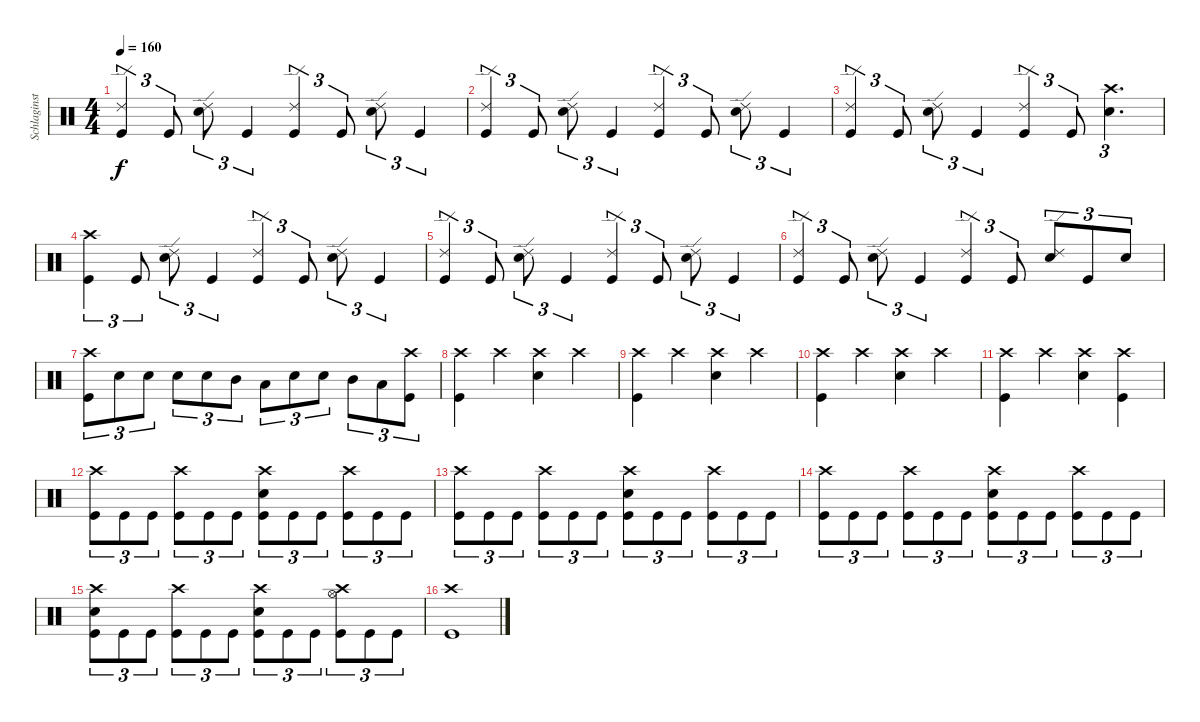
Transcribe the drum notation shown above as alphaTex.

\track ("Schlaginstrumente - Auswahl" "Schlaginst") {instrument percussion}
\staff {score}
\articulation defaults
\ts (4 4)
\tempo 160
\clef neutral
\ks c
("Ride (edge) 2" "Kick (hit)").4{tu (3 2) dy f} "Kick (hit)".8{tu (3 2)} ("Ride (edge) 2" "Electric Snare (hit)").8{tu (3 2)} "Kick (hit)".4{tu (3 2)} ("Ride (edge) 2" "Kick (hit)").4{tu (3 2)} "Kick (hit)".8{tu (3 2)} ("Ride (edge) 2" "Electric Snare (hit)").8{tu (3 2)} "Kick (hit)".4{tu (3 2)} |
("Ride (edge) 2" "Kick (hit)").4{tu (3 2)} "Kick (hit)".8{tu (3 2)} ("Ride (edge) 2" "Electric Snare (hit)").8{tu (3 2)} "Kick (hit)".4{tu (3 2)} ("Ride (edge) 2" "Kick (hit)").4{tu (3 2)} "Kick (hit)".8{tu (3 2)} ("Ride (edge) 2" "Electric Snare (hit)").8{tu (3 2)} "Kick (hit)".4{tu (3 2)} |
("Ride (edge) 2" "Kick (hit)").4{tu (3 2)} "Kick (hit)".8{tu (3 2)} ("Ride (edge) 2" "Electric Snare (hit)").8{tu (3 2)} "Kick (hit)".4{tu (3 2)} ("Ride (edge) 2" "Kick (hit)").4{tu (3 2)} "Kick (hit)".8{tu (3 2)} ("Crash high (hit)" "Electric Snare (hit)").4{d tu (3 2)} |
("Crash high (hit)" "Kick (hit)").4{tu (3 2)} "Kick (hit)".8{tu (3 2)} ("Ride (edge) 2" "Electric Snare (hit)").8{tu (3 2)} "Kick (hit)".4{tu (3 2)} ("Ride (edge) 2" "Kick (hit)").4{tu (3 2)} "Kick (hit)".8{tu (3 2)} ("Ride (edge) 2" "Electric Snare (hit)").8{tu (3 2)} "Kick (hit)".4{tu (3 2)} |
("Ride (edge) 2" "Kick (hit)").4{tu (3 2)} "Kick (hit)".8{tu (3 2)} ("Ride (edge) 2" "Electric Snare (hit)").8{tu (3 2)} "Kick (hit)".4{tu (3 2)} ("Ride (edge) 2" "Kick (hit)").4{tu (3 2)} "Kick (hit)".8{tu (3 2)} ("Ride (edge) 2" "Electric Snare (hit)").8{tu (3 2)} "Kick (hit)".4{tu (3 2)} |
("Ride (edge) 2" "Kick (hit)").4{tu (3 2)} "Kick (hit)".8{tu (3 2)} ("Ride (edge) 2" "Electric Snare (hit)").8{tu (3 2)} "Kick (hit)".4{tu (3 2)} ("Ride (edge) 2" "Kick (hit)").4{tu (3 2)} "Kick (hit)".8{tu (3 2)} ("Ride (edge) 2" "Electric Snare (hit)").8{tu (3 2)} "Kick (hit)".8{tu (3 2)} "Electric Snare (hit)".8{tu (3 2)} |
("Crash high (hit)" "Kick (hit)").8{tu (3 2)} "Electric Snare (hit)".8{tu (3 2)} "Electric Snare (hit)".8{tu (3 2)} "Electric Snare (hit)".8{tu (3 2)} "Electric Snare (hit)".8{tu (3 2)} "Mid Tom (hit)".8{tu (3 2)} "Low Tom (hit)".8{tu (3 2)} "Electric Snare (hit)".8{tu (3 2)} "Electric Snare (hit)".8{tu (3 2)} "Mid Tom (hit)".8{tu (3 2)} "Low Tom (hit)".8{tu (3 2)} ("Crash high (hit)" "Kick (hit)").8{tu (3 2)} |
("Crash high (hit)" "Kick (hit)").4 "Crash high (hit)".4 ("Crash high (hit)" "Electric Snare (hit)").4 "Crash high (hit)".4 |
("Crash high (hit)" "Kick (hit)").4 "Crash high (hit)".4 ("Crash high (hit)" "Electric Snare (hit)").4 "Crash high (hit)".4 |
("Crash high (hit)" "Kick (hit)").4 "Crash high (hit)".4 ("Crash high (hit)" "Electric Snare (hit)").4 "Crash high (hit)".4 |
("Crash high (hit)" "Kick (hit)").4 "Crash high (hit)".4 ("Crash high (hit)" "Electric Snare (hit)").4 ("Crash high (hit)" "Kick (hit)").4 |
("Crash high (hit)" "Kick (hit)").8{tu (3 2)} "Kick (hit)".8{tu (3 2)} "Kick (hit)".8{tu (3 2)} ("Crash high (hit)" "Kick (hit)").8{tu (3 2)} "Kick (hit)".8{tu (3 2)} "Kick (hit)".8{tu (3 2)} ("Electric Snare (hit)" "Crash high (hit)" "Kick (hit)").8{tu (3 2)} "Kick (hit)".8{tu (3 2)} "Kick (hit)".8{tu (3 2)} ("Crash high (hit)" "Kick (hit)").8{tu (3 2)} "Kick (hit)".8{tu (3 2)} "Kick (hit)".8{tu (3 2)} |
("Crash high (hit)" "Kick (hit)").8{tu (3 2)} "Kick (hit)".8{tu (3 2)} "Kick (hit)".8{tu (3 2)} ("Crash high (hit)" "Kick (hit)").8{tu (3 2)} "Kick (hit)".8{tu (3 2)} "Kick (hit)".8{tu (3 2)} ("Electric Snare (hit)" "Crash high (hit)" "Kick (hit)").8{tu (3 2)} "Kick (hit)".8{tu (3 2)} "Kick (hit)".8{tu (3 2)} ("Crash high (hit)" "Kick (hit)").8{tu (3 2)} "Kick (hit)".8{tu (3 2)} "Kick (hit)".8{tu (3 2)} |
("Crash high (hit)" "Kick (hit)").8{tu (3 2)} "Kick (hit)".8{tu (3 2)} "Kick (hit)".8{tu (3 2)} ("Crash high (hit)" "Kick (hit)").8{tu (3 2)} "Kick (hit)".8{tu (3 2)} "Kick (hit)".8{tu (3 2)} ("Electric Snare (hit)" "Crash high (hit)" "Kick (hit)").8{tu (3 2)} "Kick (hit)".8{tu (3 2)} "Kick (hit)".8{tu (3 2)} ("Crash high (hit)" "Kick (hit)").8{tu (3 2)} "Kick (hit)".8{tu (3 2)} "Kick (hit)".8{tu (3 2)} |
("Electric Snare (hit)" "Crash high (hit)" "Kick (hit)").8{tu (3 2)} "Kick (hit)".8{tu (3 2)} "Kick (hit)".8{tu (3 2)} ("Crash high (hit)" "Kick (hit)").8{tu (3 2)} "Kick (hit)".8{tu (3 2)} "Kick (hit)".8{tu (3 2)} ("Electric Snare (hit)" "Crash high (hit)" "Kick (hit)").8{tu (3 2)} "Kick (hit)".8{tu (3 2)} "Kick (hit)".8{tu (3 2)} ("Hi-Hat (open)" "Crash high (hit)" "Kick (hit)").8{tu (3 2)} "Kick (hit)".8{tu (3 2)} "Kick (hit)".8{tu (3 2)} |
("Crash high (hit)" "Kick (hit)").1
